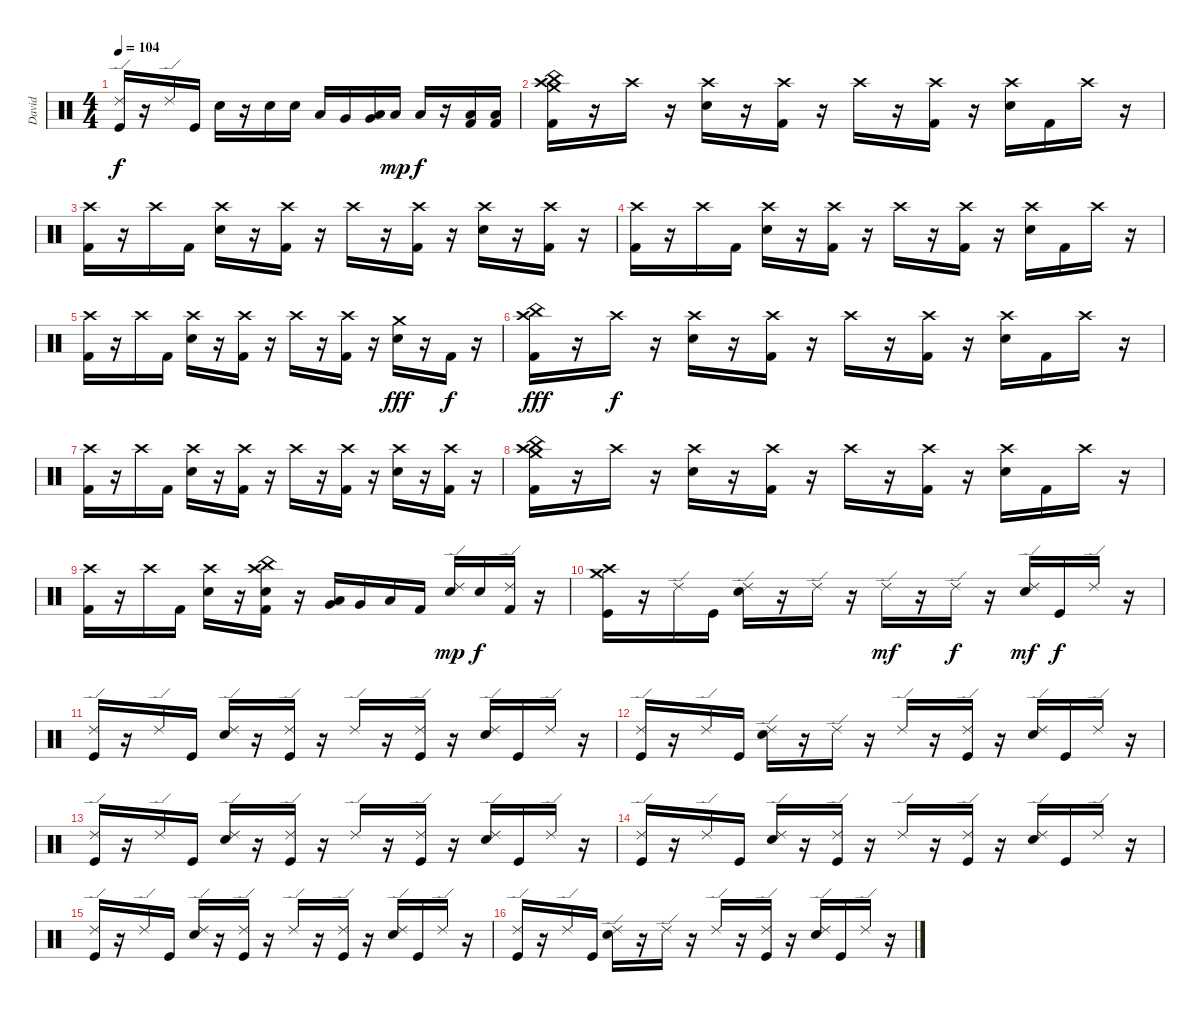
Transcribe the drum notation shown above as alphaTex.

\track ("David" "David") {instrument percussion}
\staff {score}
\articulation defaults
\ts (4 4)
\tempo 104
\clef neutral
\ks c
("Ride (edge) 2" "Kick (hit)").16{dy f} r.16 "Ride (edge) 2".16 "Kick (hit)".16 "Snare (hit) 2".16 r.16 "Snare (hit) 2".16 "Snare (hit) 2".16 "Low Floor Tom (hit)".16 "Very Low Tom (hit)".16 ("Very Low Tom (hit)" "Low Floor Tom (hit)").16 "Low Floor Tom (hit)".16{dy mp} "Low Floor Tom (hit)".16{dy f} r.16 ("Kick (hit) 2" "Low Floor Tom (hit)").16 ("Kick (hit) 2" "Low Floor Tom (hit)").16 |
("Crash medium (hit)" "Crash high (hit)" "China (hit)" "Kick (hit) 2").16 r.16 "Crash high (hit)".16 r.16 ("Crash high (hit)" "Snare (hit) 2").16 r.16 ("Crash high (hit)" "Kick (hit) 2").16 r.16 "Crash high (hit)".16 r.16 ("Crash high (hit)" "Kick (hit) 2").16 r.16 ("Crash high (hit)" "Snare (hit) 2").16 "Kick (hit) 2".16 "Crash high (hit)".16 r.16 |
("Crash high (hit)" "Kick (hit) 2").16 r.16 "Crash high (hit)".16 "Kick (hit) 2".16 ("Crash high (hit)" "Snare (hit) 2").16 r.16 ("Crash high (hit)" "Kick (hit) 2").16 r.16 "Crash high (hit)".16 r.16 ("Crash high (hit)" "Kick (hit) 2").16 r.16 ("Crash high (hit)" "Snare (hit) 2").16 r.16 ("Crash high (hit)" "Kick (hit) 2").16 r.16 |
("Crash high (hit)" "Kick (hit) 2").16 r.16 "Crash high (hit)".16 "Kick (hit) 2".16 ("Crash high (hit)" "Snare (hit) 2").16 r.16 ("Crash high (hit)" "Kick (hit) 2").16 r.16 "Crash high (hit)".16 r.16 ("Crash high (hit)" "Kick (hit) 2").16 r.16 ("Crash high (hit)" "Snare (hit) 2").16 "Kick (hit) 2".16 "Crash high (hit)".16 r.16 |
("Crash high (hit)" "Kick (hit) 2").16 r.16 "Crash high (hit)".16 "Kick (hit) 2".16 ("Crash high (hit)" "Snare (hit) 2").16 r.16 ("Crash high (hit)" "Kick (hit) 2").16 r.16 "Crash high (hit)".16 r.16 ("Crash high (hit)" "Kick (hit) 2").16 r.16 ("Crash medium (hit)" "Snare (hit) 2").16{dy fff} r.16 "Kick (hit) 2".16{dy f} r.16 |
("Crash high (hit)" "China (hit)" "Kick (hit) 2").16{dy fff} r.16 "Crash high (hit)".16{dy f} r.16 ("Crash high (hit)" "Snare (hit) 2").16 r.16 ("Crash high (hit)" "Kick (hit) 2").16 r.16 "Crash high (hit)".16 r.16 ("Crash high (hit)" "Kick (hit) 2").16 r.16 ("Crash high (hit)" "Snare (hit) 2").16 "Kick (hit) 2".16 "Crash high (hit)".16 r.16 |
("Crash high (hit)" "Kick (hit) 2").16 r.16 "Crash high (hit)".16 "Kick (hit) 2".16 ("Crash high (hit)" "Snare (hit) 2").16 r.16 ("Crash high (hit)" "Kick (hit) 2").16 r.16 "Crash high (hit)".16 r.16 ("Crash high (hit)" "Kick (hit) 2").16 r.16 ("Crash high (hit)" "Snare (hit) 2").16 r.16 ("Crash high (hit)" "Kick (hit) 2").16 r.16 |
("Crash medium (hit)" "Crash high (hit)" "China (hit)" "Kick (hit) 2").16 r.16 "Crash high (hit)".16 r.16 ("Crash high (hit)" "Snare (hit) 2").16 r.16 ("Crash high (hit)" "Kick (hit) 2").16 r.16 "Crash high (hit)".16 r.16 ("Crash high (hit)" "Kick (hit) 2").16 r.16 ("Crash high (hit)" "Snare (hit) 2").16 "Kick (hit) 2".16 "Crash high (hit)".16 r.16 |
("Crash high (hit)" "Kick (hit) 2").16 r.16 "Crash high (hit)".16 "Kick (hit) 2".16 ("Crash high (hit)" "Snare (hit) 2").16 r.16 ("Crash high (hit)" "China (hit)" "Snare (hit) 2" "Kick (hit) 2").16 r.16 ("Very Low Tom (hit)" "Low Floor Tom (hit)").16 "Very Low Tom (hit)".16 "Low Floor Tom (hit)".16 "Kick (hit) 2".16 ("Ride (edge) 2" "Snare (hit) 2").16{dy mp} "Snare (hit) 2".16{dy f} ("Ride (edge) 2" "Kick (hit) 2").16 r.16 |
("Crash high (hit)" "Crash medium (hit)" "Kick (hit)").16 r.16 "Ride (edge) 2".16 "Kick (hit)".16 ("Ride (edge) 2" "Snare (hit) 2").16 r.16 "Ride (edge) 2".16 r.16 "Ride (edge) 2".16{dy mf} r.16 "Ride (edge) 2".16{dy f} r.16 ("Ride (edge) 2" "Snare (hit) 2").16{dy mf} "Kick (hit)".16{dy f} "Ride (edge) 2".16 r.16 |
("Ride (edge) 2" "Kick (hit)").16 r.16 "Ride (edge) 2".16 "Kick (hit)".16 ("Ride (edge) 2" "Snare (hit) 2").16 r.16 ("Ride (edge) 2" "Kick (hit)").16 r.16 "Ride (edge) 2".16 r.16 ("Ride (edge) 2" "Kick (hit)").16 r.16 ("Ride (edge) 2" "Snare (hit) 2").16 "Kick (hit)".16 "Ride (edge) 2".16 r.16 |
("Ride (edge) 2" "Kick (hit)").16 r.16 "Ride (edge) 2".16 "Kick (hit)".16 ("Ride (edge) 2" "Snare (hit) 2").16 r.16 "Ride (edge) 2".16 r.16 "Ride (edge) 2".16 r.16 ("Ride (edge) 2" "Kick (hit)").16 r.16 ("Ride (edge) 2" "Snare (hit) 2").16 "Kick (hit)".16 "Ride (edge) 2".16 r.16 |
("Ride (edge) 2" "Kick (hit)").16 r.16 "Ride (edge) 2".16 "Kick (hit)".16 ("Ride (edge) 2" "Snare (hit) 2").16 r.16 ("Ride (edge) 2" "Kick (hit)").16 r.16 "Ride (edge) 2".16 r.16 ("Ride (edge) 2" "Kick (hit)").16 r.16 ("Ride (edge) 2" "Snare (hit) 2").16 "Kick (hit)".16 "Ride (edge) 2".16 r.16 |
("Ride (edge) 2" "Kick (hit)").16 r.16 "Ride (edge) 2".16 "Kick (hit)".16 ("Ride (edge) 2" "Snare (hit) 2").16 r.16 ("Ride (edge) 2" "Kick (hit)").16 r.16 "Ride (edge) 2".16 r.16 ("Ride (edge) 2" "Kick (hit)").16 r.16 ("Ride (edge) 2" "Snare (hit) 2").16 "Kick (hit)".16 "Ride (edge) 2".16 r.16 |
("Ride (edge) 2" "Kick (hit)").16 r.16 "Ride (edge) 2".16 "Kick (hit)".16 ("Ride (edge) 2" "Snare (hit) 2").16 r.16 ("Ride (edge) 2" "Kick (hit)").16 r.16 "Ride (edge) 2".16 r.16 ("Ride (edge) 2" "Kick (hit)").16 r.16 ("Ride (edge) 2" "Snare (hit) 2").16 "Kick (hit)".16 "Ride (edge) 2".16 r.16 |
("Ride (edge) 2" "Kick (hit)").16 r.16 "Ride (edge) 2".16 "Kick (hit)".16 ("Ride (edge) 2" "Snare (hit) 2").16 r.16 "Ride (edge) 2".16 r.16 "Ride (edge) 2".16 r.16 ("Ride (edge) 2" "Kick (hit)").16 r.16 ("Ride (edge) 2" "Snare (hit) 2").16 "Kick (hit)".16 "Ride (edge) 2".16 r.16
